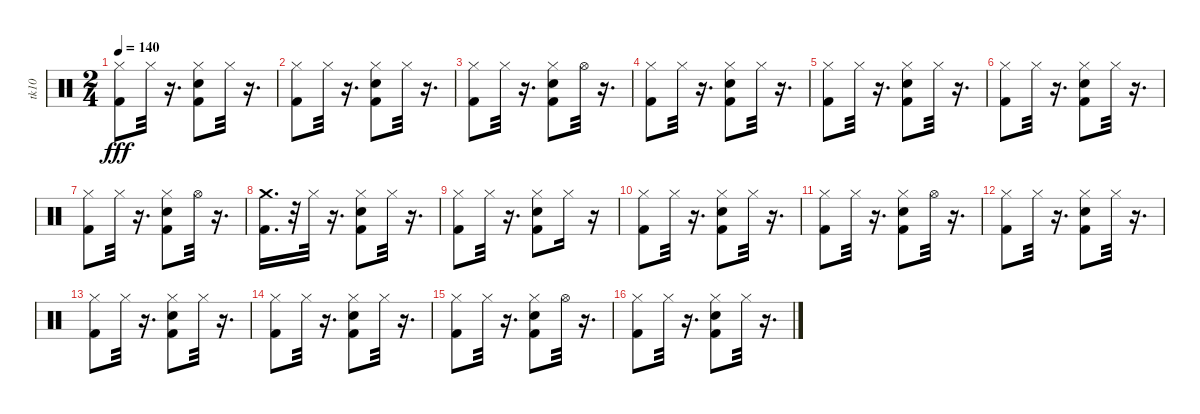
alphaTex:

\track ("tk10" "tk10") {instrument percussion}
\staff {score}
\articulation defaults
\ts (2 4)
\tempo 140
\clef neutral
\ks c
("Kick (hit) 2" "Hi-Hat (closed)").8{dy fff} "Hi-Hat (closed)".32 r.16{d} ("Snare (hit) 2" "Kick (hit) 2" "Hi-Hat (closed)").8 "Hi-Hat (closed)".32 r.16{d} |
("Kick (hit) 2" "Hi-Hat (closed)").8 "Hi-Hat (closed)".32 r.16{d} ("Snare (hit) 2" "Kick (hit) 2" "Hi-Hat (closed)").8 "Hi-Hat (closed)".32 r.16{d} |
("Kick (hit) 2" "Hi-Hat (closed)").8 "Hi-Hat (closed)".32 r.16{d} ("Snare (hit) 2" "Kick (hit) 2" "Hi-Hat (closed)").8 "Hi-Hat (open)".32 r.16{d} |
("Kick (hit) 2" "Hi-Hat (closed)").8 "Hi-Hat (closed)".32 r.16{d} ("Kick (hit) 2" "Hi-Hat (closed)" "Snare (hit) 2").8 "Hi-Hat (closed)".32 r.16{d} |
("Kick (hit) 2" "Hi-Hat (closed)").8 "Hi-Hat (closed)".32 r.16{d} ("Hi-Hat (closed)" "Snare (hit) 2" "Kick (hit) 2").8 "Hi-Hat (closed)".32 r.16{d} |
("Kick (hit) 2" "Hi-Hat (closed)").8 "Hi-Hat (closed)".32 r.16{d} ("Kick (hit) 2" "Hi-Hat (closed)" "Snare (hit) 2").8 "Hi-Hat (closed)".32 r.16{d} |
("Kick (hit) 2" "Hi-Hat (closed)").8 "Hi-Hat (closed)".32 r.16{d} ("Snare (hit) 2" "Kick (hit) 2" "Hi-Hat (closed)").8 "Hi-Hat (open)".32 r.16{d} |
("Kick (hit) 2" "Crash medium (hit)").16{d} r.32 "Hi-Hat (closed)".32 r.16{d} ("Kick (hit) 2" "Snare (hit) 2" "Hi-Hat (closed)").8 "Hi-Hat (closed)".32 r.16{d} |
("Kick (hit) 2" "Hi-Hat (closed)").8 "Hi-Hat (closed)".32 r.16{d} ("Hi-Hat (closed)" "Snare (hit) 2" "Kick (hit) 2").8 "Hi-Hat (closed)".16 r.16 |
("Kick (hit) 2" "Hi-Hat (closed)").8 "Hi-Hat (closed)".32 r.16{d} ("Snare (hit) 2" "Kick (hit) 2" "Hi-Hat (closed)").8 "Hi-Hat (closed)".32 r.16{d} |
("Kick (hit) 2" "Hi-Hat (closed)").8 "Hi-Hat (closed)".32 r.16{d} ("Snare (hit) 2" "Hi-Hat (closed)" "Kick (hit) 2").8 "Hi-Hat (open)".32 r.16{d} |
("Kick (hit) 2" "Hi-Hat (closed)").8 "Hi-Hat (closed)".32 r.16{d} ("Snare (hit) 2" "Kick (hit) 2" "Hi-Hat (closed)").8 "Hi-Hat (closed)".32 r.16{d} |
("Kick (hit) 2" "Hi-Hat (closed)").8 "Hi-Hat (closed)".32 r.16{d} ("Snare (hit) 2" "Kick (hit) 2" "Hi-Hat (closed)").8 "Hi-Hat (closed)".32 r.16{d} |
("Kick (hit) 2" "Hi-Hat (closed)").8 "Hi-Hat (closed)".32 r.16{d} ("Kick (hit) 2" "Hi-Hat (closed)" "Snare (hit) 2").8 "Hi-Hat (closed)".32 r.16{d} |
("Kick (hit) 2" "Hi-Hat (closed)").8 "Hi-Hat (closed)".32 r.16{d} ("Snare (hit) 2" "Kick (hit) 2" "Hi-Hat (closed)").8 "Hi-Hat (open)".32 r.16{d} |
("Kick (hit) 2" "Hi-Hat (closed)").8 "Hi-Hat (closed)".32 r.16{d} ("Snare (hit) 2" "Kick (hit) 2" "Hi-Hat (closed)").8 "Hi-Hat (closed)".32 r.16{d}
